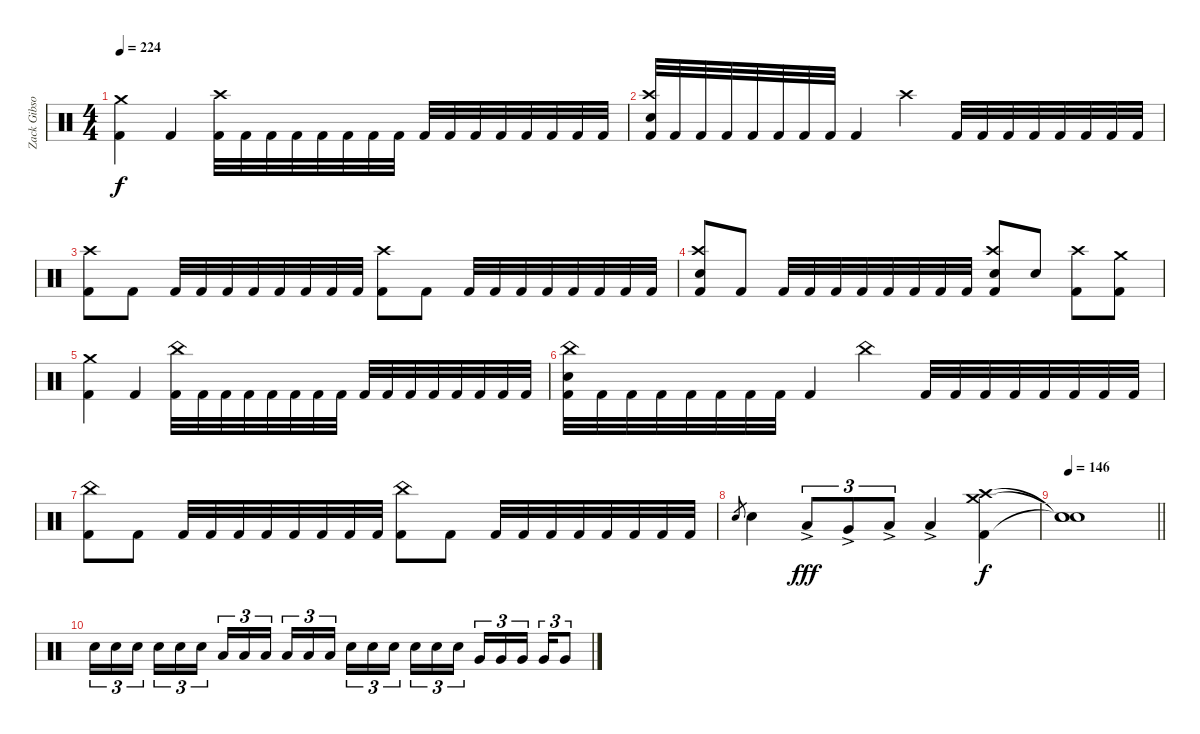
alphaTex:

\track ("Zack Gibson" "Zack Gibso") {instrument percussion}
\staff {score}
\articulation defaults
\ts (4 4)
\tempo 224
\clef neutral
\ks c
("Crash medium (hit)" "Kick (hit) 2").4{dy f} "Kick (hit) 2".4 ("Crash high (hit)" "Kick (hit) 2").32 "Kick (hit) 2".32 "Kick (hit) 2".32 "Kick (hit) 2".32 "Kick (hit) 2".32 "Kick (hit) 2".32 "Kick (hit) 2".32 "Kick (hit) 2".32 "Kick (hit) 2".32 "Kick (hit) 2".32 "Kick (hit) 2".32 "Kick (hit) 2".32 "Kick (hit) 2".32 "Kick (hit) 2".32 "Kick (hit) 2".32 "Kick (hit) 2".32 |
("Kick (hit) 2" "Crash high (hit)" "Snare (hit) 2").32 "Kick (hit) 2".32 "Kick (hit) 2".32 "Kick (hit) 2".32 "Kick (hit) 2".32 "Kick (hit) 2".32 "Kick (hit) 2".32 "Kick (hit) 2".32 "Kick (hit) 2".4 "Crash high (hit)".4 "Kick (hit) 2".32 "Kick (hit) 2".32 "Kick (hit) 2".32 "Kick (hit) 2".32 "Kick (hit) 2".32 "Kick (hit) 2".32 "Kick (hit) 2".32 "Kick (hit) 2".32 |
("Crash high (hit)" "Kick (hit) 2").8 "Kick (hit) 2".8 "Kick (hit) 2".32 "Kick (hit) 2".32 "Kick (hit) 2".32 "Kick (hit) 2".32 "Kick (hit) 2".32 "Kick (hit) 2".32 "Kick (hit) 2".32 "Kick (hit) 2".32 ("Crash high (hit)" "Kick (hit) 2").8 "Kick (hit) 2".8 "Kick (hit) 2".32 "Kick (hit) 2".32 "Kick (hit) 2".32 "Kick (hit) 2".32 "Kick (hit) 2".32 "Kick (hit) 2".32 "Kick (hit) 2".32 "Kick (hit) 2".32 |
("Snare (hit) 2" "Crash high (hit)" "Kick (hit) 2").8 "Kick (hit) 2".8 "Kick (hit) 2".32 "Kick (hit) 2".32 "Kick (hit) 2".32 "Kick (hit) 2".32 "Kick (hit) 2".32 "Kick (hit) 2".32 "Kick (hit) 2".32 "Kick (hit) 2".32 ("Snare (hit) 2" "Crash high (hit)" "Kick (hit) 2").8 "Snare (hit) 2".8 ("Crash high (hit)" "Kick (hit) 2").8 ("Crash medium (hit)" "Kick (hit) 2").8 |
("Crash medium (hit)" "Kick (hit) 2").4 "Kick (hit) 2".4 ("China (hit)" "Kick (hit) 2").32 "Kick (hit) 2".32 "Kick (hit) 2".32 "Kick (hit) 2".32 "Kick (hit) 2".32 "Kick (hit) 2".32 "Kick (hit) 2".32 "Kick (hit) 2".32 "Kick (hit) 2".32 "Kick (hit) 2".32 "Kick (hit) 2".32 "Kick (hit) 2".32 "Kick (hit) 2".32 "Kick (hit) 2".32 "Kick (hit) 2".32 "Kick (hit) 2".32 |
("Kick (hit) 2" "China (hit)" "Snare (hit) 2").32 "Kick (hit) 2".32 "Kick (hit) 2".32 "Kick (hit) 2".32 "Kick (hit) 2".32 "Kick (hit) 2".32 "Kick (hit) 2".32 "Kick (hit) 2".32 "Kick (hit) 2".4 "China (hit)".4 "Kick (hit) 2".32 "Kick (hit) 2".32 "Kick (hit) 2".32 "Kick (hit) 2".32 "Kick (hit) 2".32 "Kick (hit) 2".32 "Kick (hit) 2".32 "Kick (hit) 2".32 |
("China (hit)" "Kick (hit) 2").8 "Kick (hit) 2".8 "Kick (hit) 2".32 "Kick (hit) 2".32 "Kick (hit) 2".32 "Kick (hit) 2".32 "Kick (hit) 2".32 "Kick (hit) 2".32 "Kick (hit) 2".32 "Kick (hit) 2".32 ("China (hit)" "Kick (hit) 2").8 "Kick (hit) 2".8 "Kick (hit) 2".32 "Kick (hit) 2".32 "Kick (hit) 2".32 "Kick (hit) 2".32 "Kick (hit) 2".32 "Kick (hit) 2".32 "Kick (hit) 2".32 "Kick (hit) 2".32 |
"Snare (hit) 2".8{gr} "Snare (hit) 2".4 "Low Tom (hit)"{ac}.8{tu (3 2) dy fff} "Very Low Tom (hit)"{ac}.8{tu (3 2)} "Low Floor Tom (hit)"{ac}.8{tu (3 2)} "Low Floor Tom (hit)"{ac}.4 ("Crash medium (hit)" "Crash high (hit)" "Kick (hit) 2").4{dy f} |
\tempo 146
\barLineRight lightlight
("Snare (hit)"{t} "Snare (hit)"{t} "Snare (hit)"{t}).1 |
"Snare (hit) 2".16{tu (3 2)} "Snare (hit) 2".16{tu (3 2)} "Snare (hit) 2".16{tu (3 2)} "Snare (hit) 2".16{tu (3 2)} "Snare (hit) 2".16{tu (3 2)} "Snare (hit) 2".16{tu (3 2)} "Low Tom (hit)".16{tu (3 2)} "Low Tom (hit)".16{tu (3 2)} "Low Tom (hit)".16{tu (3 2)} "Low Tom (hit)".16{tu (3 2)} "Low Tom (hit)".16{tu (3 2)} "Low Tom (hit)".16{tu (3 2)} "Snare (hit) 2".16{tu (3 2)} "Snare (hit) 2".16{tu (3 2)} "Snare (hit) 2".16{tu (3 2)} "Snare (hit) 2".16{tu (3 2)} "Snare (hit) 2".16{tu (3 2)} "Snare (hit) 2".16{tu (3 2)} "Very Low Tom (hit)".16{tu (3 2)} "Very Low Tom (hit)".16{tu (3 2)} "Very Low Tom (hit)".16{tu (3 2)} "Very Low Tom (hit)".16{tu (3 2)} "Very Low Tom (hit)".8{tu (3 2)}
